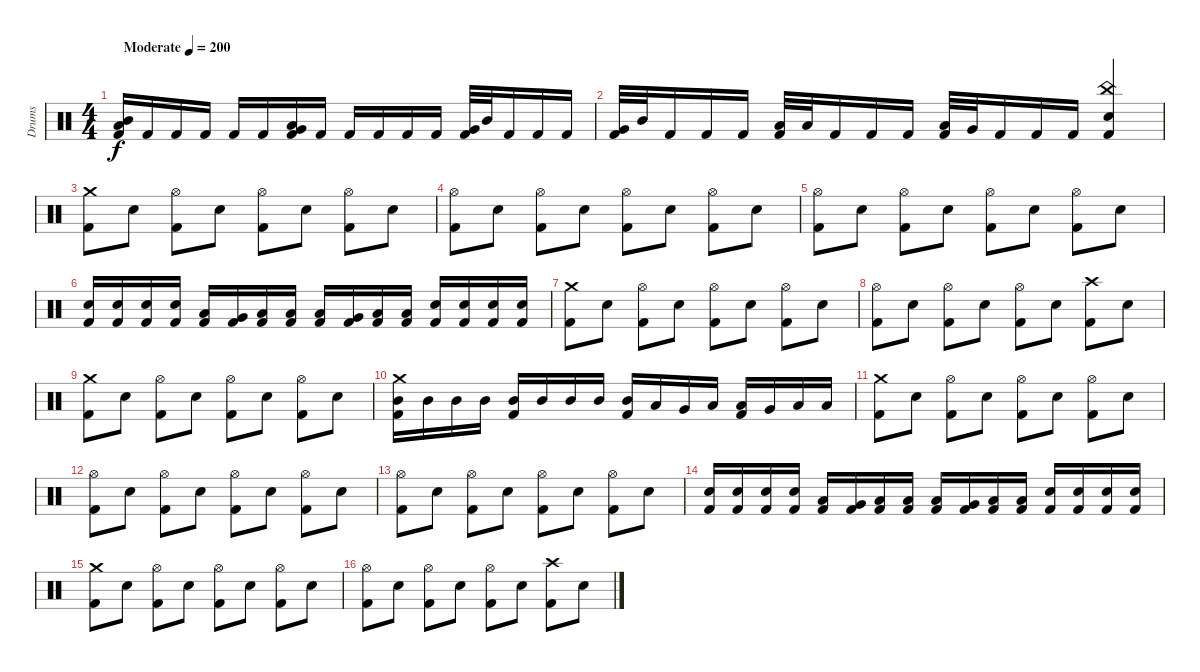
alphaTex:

\track ("Drums" "Drums") {instrument percussion}
\staff {score}
\articulation defaults
\ts (4 4)
\tempo (200 "Moderate")
\clef neutral
\ks c
("Low Tom (hit)" "Mid Tom (hit)" "Kick (hit) 2").16{dy f} "Kick (hit) 2".16 "Kick (hit) 2".16 "Kick (hit) 2".16 "Kick (hit) 2".16 "Kick (hit) 2".16 ("Very Low Tom (hit)" "Low Tom (hit)" "Kick (hit) 2").16 "Kick (hit) 2".16 "Kick (hit) 2".16 "Kick (hit) 2".16 "Kick (hit) 2".16 "Kick (hit) 2".16 ("Very Low Tom (hit)" "Kick (hit) 2").32 "Mid Tom (hit)".32 "Kick (hit) 2".16 "Kick (hit) 2".16 "Kick (hit) 2".16 |
("Very Low Tom (hit)" "Kick (hit) 2").32 "Mid Tom (hit)".32 "Kick (hit) 2".16 "Kick (hit) 2".16 "Kick (hit) 2".16 ("Low Floor Tom (hit)" "Kick (hit) 2").32 "Low Tom (hit)".32 "Kick (hit) 2".16 "Kick (hit) 2".16 "Kick (hit) 2".16 ("Low Floor Tom (hit)" "Kick (hit) 2").32 "Very Low Tom (hit)".32 "Kick (hit) 2".16 "Kick (hit) 2".16 "Kick (hit) 2".16 ("China (hit)" "Electric Snare (hit)" "Kick (hit) 2").4 |
("Crash medium (hit)" "Kick (hit) 2").8 "Electric Snare (hit)".8 ("Hi-Hat (open)" "Kick (hit) 2").8 "Electric Snare (hit)".8 ("Hi-Hat (open)" "Kick (hit) 2").8 "Electric Snare (hit)".8 ("Hi-Hat (open)" "Kick (hit) 2").8 "Electric Snare (hit)".8 |
("Hi-Hat (open)" "Kick (hit) 2").8 "Electric Snare (hit)".8 ("Hi-Hat (open)" "Kick (hit) 2").8 "Electric Snare (hit)".8 ("Hi-Hat (open)" "Kick (hit) 2").8 "Electric Snare (hit)".8 ("Hi-Hat (open)" "Kick (hit) 2").8 "Electric Snare (hit)".8 |
("Hi-Hat (open)" "Kick (hit) 2").8 "Electric Snare (hit)".8 ("Hi-Hat (open)" "Kick (hit) 2").8 "Electric Snare (hit)".8 ("Hi-Hat (open)" "Kick (hit) 2").8 "Electric Snare (hit)".8 ("Hi-Hat (open)" "Kick (hit) 2").8 "Electric Snare (hit)".8 |
("Electric Snare (hit)" "Kick (hit) 2").16 ("Electric Snare (hit)" "Kick (hit) 2").16 ("Electric Snare (hit)" "Kick (hit) 2").16 ("Electric Snare (hit)" "Kick (hit) 2").16 ("Low Tom (hit)" "Kick (hit) 2").16 ("Very Low Tom (hit)" "Kick (hit) 2").16 ("Low Floor Tom (hit)" "Kick (hit) 2").16 ("Low Floor Tom (hit)" "Kick (hit) 2").16 ("Low Tom (hit)" "Kick (hit) 2").16 ("Very Low Tom (hit)" "Kick (hit) 2").16 ("Low Floor Tom (hit)" "Kick (hit) 2").16 ("Low Floor Tom (hit)" "Kick (hit) 2").16 ("Electric Snare (hit)" "Kick (hit) 2").16 ("Electric Snare (hit)" "Kick (hit) 2").16 ("Electric Snare (hit)" "Kick (hit) 2").16 ("Electric Snare (hit)" "Kick (hit) 2").16 |
("Crash medium (hit)" "Kick (hit) 2").8 "Electric Snare (hit)".8 ("Hi-Hat (open)" "Kick (hit) 2").8 "Electric Snare (hit)".8 ("Hi-Hat (open)" "Kick (hit) 2").8 "Electric Snare (hit)".8 ("Hi-Hat (open)" "Kick (hit) 2").8 "Electric Snare (hit)".8 |
("Hi-Hat (open)" "Kick (hit) 2").8 "Electric Snare (hit)".8 ("Hi-Hat (open)" "Kick (hit) 2").8 "Electric Snare (hit)".8 ("Hi-Hat (open)" "Kick (hit) 2").8 "Electric Snare (hit)".8 ("Crash high (hit)" "Kick (hit) 2").8 "Electric Snare (hit)".8 |
("Crash medium (hit)" "Kick (hit) 2").8 "Electric Snare (hit)".8 ("Hi-Hat (open)" "Kick (hit) 2").8 "Electric Snare (hit)".8 ("Hi-Hat (open)" "Kick (hit) 2").8 "Electric Snare (hit)".8 ("Hi-Hat (open)" "Kick (hit) 2").8 "Electric Snare (hit)".8 |
("Crash medium (hit)" "Mid Tom (hit)" "Kick (hit) 2").16 "Mid Tom (hit)".16 "Mid Tom (hit)".16 "Mid Tom (hit)".16 ("Mid Tom (hit)" "Kick (hit) 2").16 "Mid Tom (hit)".16 "Mid Tom (hit)".16 "Mid Tom (hit)".16 ("Mid Tom (hit)" "Kick (hit) 2").16 "Low Tom (hit)".16 "Very Low Tom (hit)".16 "Low Floor Tom (hit)".16 ("Low Tom (hit)" "Kick (hit) 2").16 "Very Low Tom (hit)".16 "Low Floor Tom (hit)".16 "Low Floor Tom (hit)".16 |
("Crash medium (hit)" "Kick (hit) 2").8 "Electric Snare (hit)".8 ("Hi-Hat (open)" "Kick (hit) 2").8 "Electric Snare (hit)".8 ("Hi-Hat (open)" "Kick (hit) 2").8 "Electric Snare (hit)".8 ("Hi-Hat (open)" "Kick (hit) 2").8 "Electric Snare (hit)".8 |
("Hi-Hat (open)" "Kick (hit) 2").8 "Electric Snare (hit)".8 ("Hi-Hat (open)" "Kick (hit) 2").8 "Electric Snare (hit)".8 ("Hi-Hat (open)" "Kick (hit) 2").8 "Electric Snare (hit)".8 ("Hi-Hat (open)" "Kick (hit) 2").8 "Electric Snare (hit)".8 |
("Hi-Hat (open)" "Kick (hit) 2").8 "Electric Snare (hit)".8 ("Hi-Hat (open)" "Kick (hit) 2").8 "Electric Snare (hit)".8 ("Hi-Hat (open)" "Kick (hit) 2").8 "Electric Snare (hit)".8 ("Hi-Hat (open)" "Kick (hit) 2").8 "Electric Snare (hit)".8 |
("Electric Snare (hit)" "Kick (hit) 2").16 ("Electric Snare (hit)" "Kick (hit) 2").16 ("Electric Snare (hit)" "Kick (hit) 2").16 ("Electric Snare (hit)" "Kick (hit) 2").16 ("Low Tom (hit)" "Kick (hit) 2").16 ("Very Low Tom (hit)" "Kick (hit) 2").16 ("Low Floor Tom (hit)" "Kick (hit) 2").16 ("Low Floor Tom (hit)" "Kick (hit) 2").16 ("Low Tom (hit)" "Kick (hit) 2").16 ("Very Low Tom (hit)" "Kick (hit) 2").16 ("Low Floor Tom (hit)" "Kick (hit) 2").16 ("Low Floor Tom (hit)" "Kick (hit) 2").16 ("Electric Snare (hit)" "Kick (hit) 2").16 ("Electric Snare (hit)" "Kick (hit) 2").16 ("Electric Snare (hit)" "Kick (hit) 2").16 ("Electric Snare (hit)" "Kick (hit) 2").16 |
("Crash medium (hit)" "Kick (hit) 2").8 "Electric Snare (hit)".8 ("Hi-Hat (open)" "Kick (hit) 2").8 "Electric Snare (hit)".8 ("Hi-Hat (open)" "Kick (hit) 2").8 "Electric Snare (hit)".8 ("Hi-Hat (open)" "Kick (hit) 2").8 "Electric Snare (hit)".8 |
("Hi-Hat (open)" "Kick (hit) 2").8 "Electric Snare (hit)".8 ("Hi-Hat (open)" "Kick (hit) 2").8 "Electric Snare (hit)".8 ("Hi-Hat (open)" "Kick (hit) 2").8 "Electric Snare (hit)".8 ("Crash high (hit)" "Kick (hit) 2").8 "Electric Snare (hit)".8
